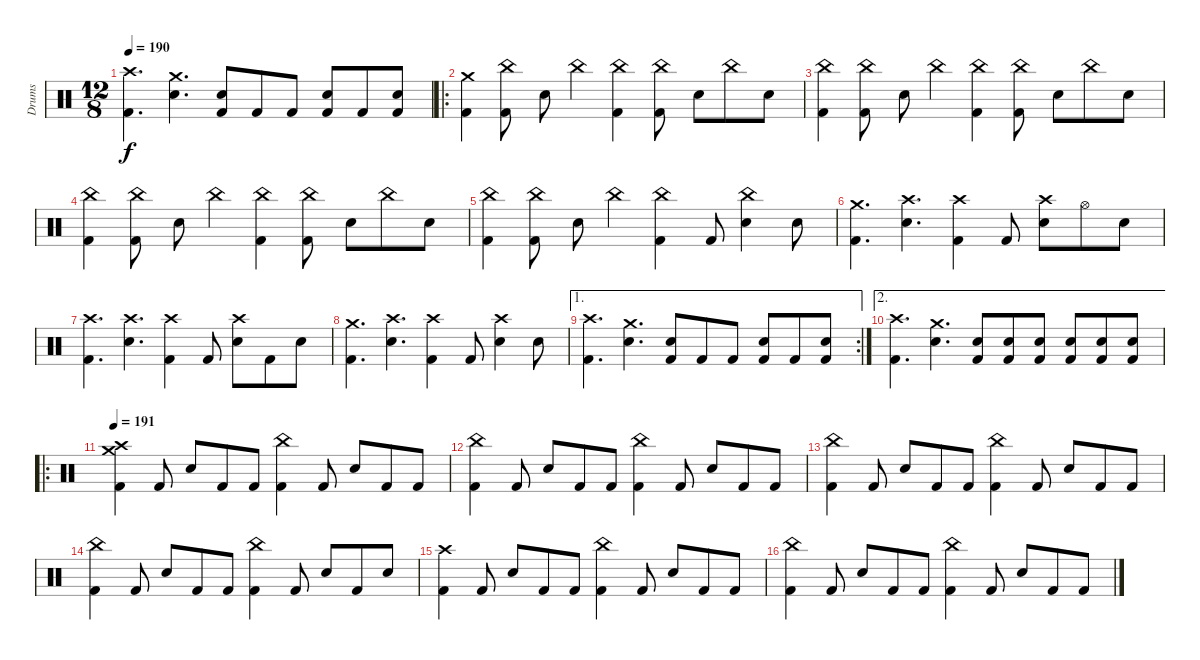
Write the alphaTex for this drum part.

\track ("Drums" "Drums") {instrument percussion}
\staff {score}
\articulation defaults
\ts (12 8)
\tempo 190
\clef neutral
\ks c
("Crash high (hit)" "Kick (hit) 2").4{d dy f} ("Crash medium (hit)" "Electric Snare (hit)").4{d} ("Electric Snare (hit)" "Kick (hit) 2").8 "Kick (hit) 2".8 "Kick (hit) 2".8 ("Electric Snare (hit)" "Kick (hit) 2").8 "Kick (hit) 2".8 ("Electric Snare (hit)" "Kick (hit) 2").8 |
\ro
("Crash medium (hit)" "Kick (hit) 2").4 ("China (hit)" "Kick (hit) 2").8 "Electric Snare (hit)".8 "China (hit)".4 ("China (hit)" "Kick (hit) 2").4 ("China (hit)" "Kick (hit) 2").8 "Electric Snare (hit)".8 "China (hit)".8 "Electric Snare (hit)".8 |
("China (hit)" "Kick (hit) 2").4 ("China (hit)" "Kick (hit) 2").8 "Electric Snare (hit)".8 "China (hit)".4 ("China (hit)" "Kick (hit) 2").4 ("China (hit)" "Kick (hit) 2").8 "Electric Snare (hit)".8 "China (hit)".8 "Electric Snare (hit)".8 |
("China (hit)" "Kick (hit) 2").4 ("China (hit)" "Kick (hit) 2").8 "Electric Snare (hit)".8 "China (hit)".4 ("China (hit)" "Kick (hit) 2").4 ("China (hit)" "Kick (hit) 2").8 "Electric Snare (hit)".8 "China (hit)".8 "Electric Snare (hit)".8 |
("China (hit)" "Kick (hit) 2").4 ("China (hit)" "Kick (hit) 2").8 "Electric Snare (hit)".8 "China (hit)".4 ("China (hit)" "Kick (hit) 2").4 "Kick (hit) 2".8 ("China (hit)" "Electric Snare (hit)").4 "Electric Snare (hit)".8 |
("Crash medium (hit)" "Kick (hit) 2").4{d} ("Crash high (hit)" "Electric Snare (hit)").4{d} ("Crash high (hit)" "Kick (hit) 2").4 "Kick (hit) 2".8 ("Crash high (hit)" "Electric Snare (hit)").8 "Hi-Hat (open)".8 "Electric Snare (hit)".8 |
("Crash high (hit)" "Kick (hit) 2").4{d} ("Crash high (hit)" "Electric Snare (hit)").4{d} ("Crash high (hit)" "Kick (hit) 2").4 "Kick (hit) 2".8 ("Crash high (hit)" "Electric Snare (hit)").8 "Kick (hit) 2".8 "Electric Snare (hit)".8 |
("Crash medium (hit)" "Kick (hit) 2").4{d} ("Crash high (hit)" "Electric Snare (hit)").4{d} ("Crash high (hit)" "Kick (hit) 2").4 "Kick (hit) 2".8 ("Crash high (hit)" "Electric Snare (hit)").4 "Electric Snare (hit)".8 |
\ae 1
\rc 2
("Crash high (hit)" "Kick (hit) 2").4{d} ("Crash medium (hit)" "Electric Snare (hit)").4{d} ("Electric Snare (hit)" "Kick (hit) 2").8 "Kick (hit) 2".8 "Kick (hit) 2".8 ("Electric Snare (hit)" "Kick (hit) 2").8 "Kick (hit) 2".8 ("Electric Snare (hit)" "Kick (hit) 2").8 |
\ae 2
("Crash high (hit)" "Kick (hit) 2").4{d} ("Crash medium (hit)" "Electric Snare (hit)").4{d} ("Electric Snare (hit)" "Kick (hit) 2").8 ("Electric Snare (hit)" "Kick (hit) 2").8 ("Electric Snare (hit)" "Kick (hit) 2").8 ("Electric Snare (hit)" "Kick (hit) 2").8 ("Electric Snare (hit)" "Kick (hit) 2").8 ("Electric Snare (hit)" "Kick (hit) 2").8 |
\ro
\tempo 191
("Crash medium (hit)" "Crash high (hit)" "Kick (hit) 2").4 "Kick (hit) 2".8 "Electric Snare (hit)".8 "Kick (hit) 2".8 "Kick (hit) 2".8 ("China (hit)" "Kick (hit) 2").4 "Kick (hit) 2".8 "Electric Snare (hit)".8 "Kick (hit) 2".8 "Kick (hit) 2".8 |
("China (hit)" "Kick (hit) 2").4 "Kick (hit) 2".8 "Electric Snare (hit)".8 "Kick (hit) 2".8 "Kick (hit) 2".8 ("China (hit)" "Kick (hit) 2").4 "Kick (hit) 2".8 "Electric Snare (hit)".8 "Kick (hit) 2".8 "Kick (hit) 2".8 |
("China (hit)" "Kick (hit) 2").4 "Kick (hit) 2".8 "Electric Snare (hit)".8 "Kick (hit) 2".8 "Kick (hit) 2".8 ("China (hit)" "Kick (hit) 2").4 "Kick (hit) 2".8 "Electric Snare (hit)".8 "Kick (hit) 2".8 "Kick (hit) 2".8 |
("China (hit)" "Kick (hit) 2").4 "Kick (hit) 2".8 "Electric Snare (hit)".8 "Kick (hit) 2".8 "Kick (hit) 2".8 ("China (hit)" "Kick (hit) 2").4 "Kick (hit) 2".8 "Electric Snare (hit)".8 "Kick (hit) 2".8 "Electric Snare (hit)".8 |
("Crash high (hit)" "Kick (hit) 2").4 "Kick (hit) 2".8 "Electric Snare (hit)".8 "Kick (hit) 2".8 "Kick (hit) 2".8 ("China (hit)" "Kick (hit) 2").4 "Kick (hit) 2".8 "Electric Snare (hit)".8 "Kick (hit) 2".8 "Kick (hit) 2".8 |
("China (hit)" "Kick (hit) 2").4 "Kick (hit) 2".8 "Electric Snare (hit)".8 "Kick (hit) 2".8 "Kick (hit) 2".8 ("China (hit)" "Kick (hit) 2").4 "Kick (hit) 2".8 "Electric Snare (hit)".8 "Kick (hit) 2".8 "Kick (hit) 2".8
